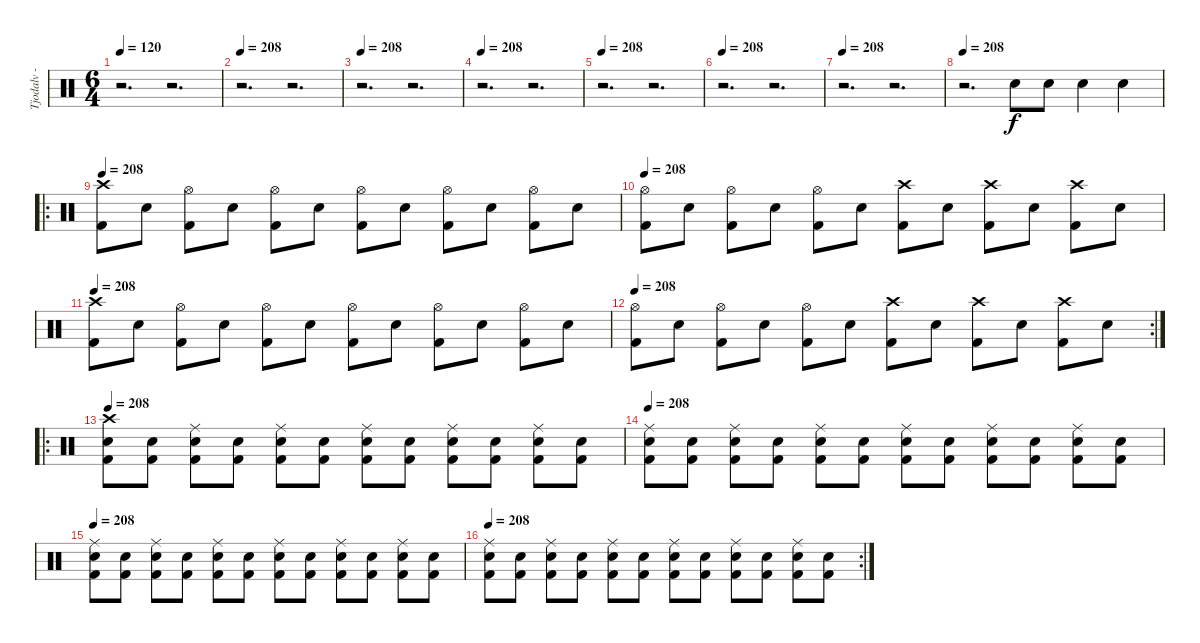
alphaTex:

\track ("Tjodalv - Drums" "Tjodalv - ") {instrument percussion}
\staff {score}
\articulation defaults
\ts (6 4)
\tempo 120
\tempo 208
\tempo 120
\clef neutral
\ks c
r.2{d dy f} r.2{d} |
\tempo 208
r.2{d} r.2{d} |
\tempo 208
r.2{d} r.2{d} |
\tempo 208
r.2{d} r.2{d} |
\tempo 208
r.2{d} r.2{d} |
\tempo 208
r.2{d} r.2{d} |
\tempo 208
r.2{d} r.2{d} |
\tempo 208
r.2{d} "Snare (hit) 2".8 "Snare (hit) 2".8 "Snare (hit) 2".4 "Snare (hit) 2".4 |
\ro
\tempo 208
("Kick (hit) 2" "Crash high (hit)").8 "Snare (hit) 2".8 ("Kick (hit) 2" "Hi-Hat (open)").8 "Snare (hit) 2".8 ("Kick (hit) 2" "Hi-Hat (open)").8 "Snare (hit) 2".8 ("Kick (hit) 2" "Hi-Hat (open)").8 "Snare (hit) 2".8 ("Kick (hit) 2" "Hi-Hat (open)").8 "Snare (hit) 2".8 ("Kick (hit) 2" "Hi-Hat (open)").8 "Snare (hit) 2".8 |
\tempo 208
("Kick (hit) 2" "Hi-Hat (open)").8 "Snare (hit) 2".8 ("Kick (hit) 2" "Hi-Hat (open)").8 "Snare (hit) 2".8 ("Kick (hit) 2" "Hi-Hat (open)").8 "Snare (hit) 2".8 ("Kick (hit) 2" "Crash high (hit)").8 "Snare (hit) 2".8 ("Kick (hit) 2" "Crash high (hit)").8 "Snare (hit) 2".8 ("Kick (hit) 2" "Crash high (hit)").8 "Snare (hit) 2".8 |
\tempo 208
("Kick (hit) 2" "Crash high (hit)").8 "Snare (hit) 2".8 ("Kick (hit) 2" "Hi-Hat (open)").8 "Snare (hit) 2".8 ("Kick (hit) 2" "Hi-Hat (open)").8 "Snare (hit) 2".8 ("Kick (hit) 2" "Hi-Hat (open)").8 "Snare (hit) 2".8 ("Kick (hit) 2" "Hi-Hat (open)").8 "Snare (hit) 2".8 ("Kick (hit) 2" "Hi-Hat (open)").8 "Snare (hit) 2".8 |
\rc 2
\tempo 208
("Kick (hit) 2" "Hi-Hat (open)").8 "Snare (hit) 2".8 ("Kick (hit) 2" "Hi-Hat (open)").8 "Snare (hit) 2".8 ("Kick (hit) 2" "Hi-Hat (open)").8 "Snare (hit) 2".8 ("Kick (hit) 2" "Crash high (hit)").8 "Snare (hit) 2".8 ("Kick (hit) 2" "Crash high (hit)").8 "Snare (hit) 2".8 ("Kick (hit) 2" "Crash high (hit)").8 "Snare (hit) 2".8 |
\ro
\tempo 208
("Kick (hit) 2" "Snare (hit) 2" "Crash high (hit)").8 ("Kick (hit) 2" "Snare (hit) 2").8 ("Kick (hit) 2" "Snare (hit) 2" "Ride (middle)").8 ("Kick (hit) 2" "Snare (hit) 2").8 ("Kick (hit) 2" "Snare (hit) 2" "Ride (middle)").8 ("Kick (hit) 2" "Snare (hit) 2").8 ("Kick (hit) 2" "Snare (hit) 2" "Ride (middle)").8 ("Kick (hit) 2" "Snare (hit) 2").8 ("Kick (hit) 2" "Snare (hit) 2" "Ride (middle)").8 ("Kick (hit) 2" "Snare (hit) 2").8 ("Kick (hit) 2" "Snare (hit) 2" "Ride (middle)").8 ("Kick (hit) 2" "Snare (hit) 2").8 |
\tempo 208
("Kick (hit) 2" "Snare (hit) 2" "Ride (middle)").8 ("Kick (hit) 2" "Snare (hit) 2").8 ("Kick (hit) 2" "Snare (hit) 2" "Ride (middle)").8 ("Kick (hit) 2" "Snare (hit) 2").8 ("Kick (hit) 2" "Snare (hit) 2" "Ride (middle)").8 ("Kick (hit) 2" "Snare (hit) 2").8 ("Kick (hit) 2" "Snare (hit) 2" "Ride (middle)").8 ("Kick (hit) 2" "Snare (hit) 2").8 ("Kick (hit) 2" "Snare (hit) 2" "Ride (middle)").8 ("Kick (hit) 2" "Snare (hit) 2").8 ("Kick (hit) 2" "Snare (hit) 2" "Ride (middle)").8 ("Kick (hit) 2" "Snare (hit) 2").8 |
\tempo 208
("Kick (hit) 2" "Snare (hit) 2" "Ride (middle)").8 ("Kick (hit) 2" "Snare (hit) 2").8 ("Kick (hit) 2" "Snare (hit) 2" "Ride (middle)").8 ("Kick (hit) 2" "Snare (hit) 2").8 ("Kick (hit) 2" "Snare (hit) 2" "Ride (middle)").8 ("Kick (hit) 2" "Snare (hit) 2").8 ("Kick (hit) 2" "Snare (hit) 2" "Ride (middle)").8 ("Kick (hit) 2" "Snare (hit) 2").8 ("Kick (hit) 2" "Snare (hit) 2" "Ride (middle)").8 ("Kick (hit) 2" "Snare (hit) 2").8 ("Kick (hit) 2" "Snare (hit) 2" "Ride (middle)").8 ("Kick (hit) 2" "Snare (hit) 2").8 |
\rc 2
\tempo 208
("Kick (hit) 2" "Snare (hit) 2" "Ride (middle)").8 ("Kick (hit) 2" "Snare (hit) 2").8 ("Kick (hit) 2" "Snare (hit) 2" "Ride (middle)").8 ("Kick (hit) 2" "Snare (hit) 2").8 ("Kick (hit) 2" "Snare (hit) 2" "Ride (middle)").8 ("Kick (hit) 2" "Snare (hit) 2").8 ("Kick (hit) 2" "Snare (hit) 2" "Ride (middle)").8 ("Kick (hit) 2" "Snare (hit) 2").8 ("Kick (hit) 2" "Snare (hit) 2" "Ride (middle)").8 ("Kick (hit) 2" "Snare (hit) 2").8 ("Kick (hit) 2" "Snare (hit) 2" "Ride (middle)").8 ("Kick (hit) 2" "Snare (hit) 2").8
